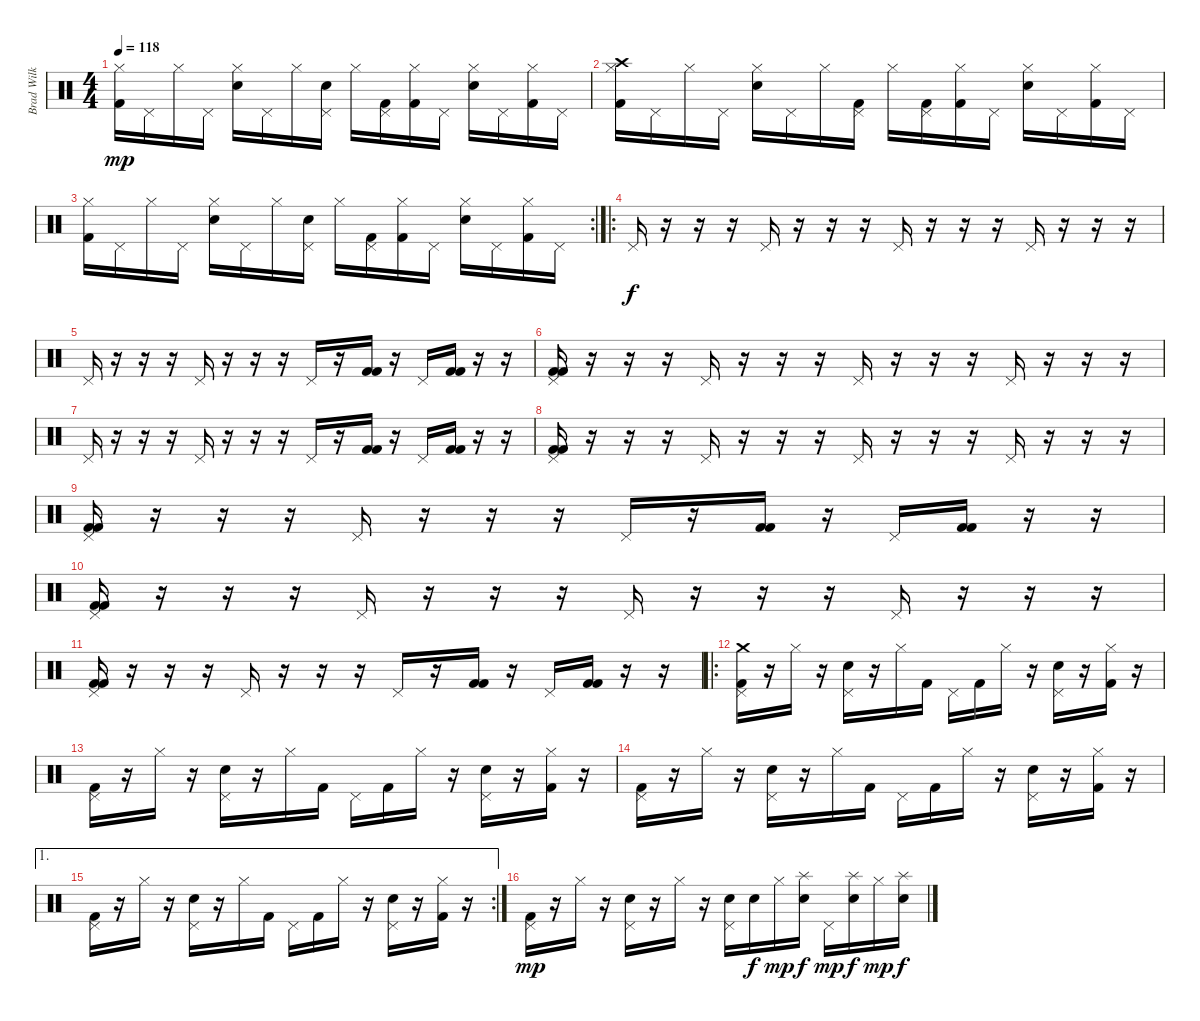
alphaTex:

\track ("Brad Wilk - Drums" "Brad Wilk ") {instrument percussion}
\staff {score}
\articulation defaults
\ts (4 4)
\tempo 118
\clef neutral
\ks c
("Kick (hit) 2" "Hi-Hat (closed)").16{dy mp} "Pedal Hi-Hat (hit)".16 "Hi-Hat (closed)".16 "Pedal Hi-Hat (hit)".16 ("Electric Snare (hit)" "Hi-Hat (closed)").16 "Pedal Hi-Hat (hit)".16 "Hi-Hat (closed)".16 ("Electric Snare (hit)" "Pedal Hi-Hat (hit)").16 "Hi-Hat (closed)".16 ("Kick (hit) 2" "Pedal Hi-Hat (hit)").16 ("Kick (hit) 2" "Hi-Hat (closed)").16 "Pedal Hi-Hat (hit)".16 ("Electric Snare (hit)" "Hi-Hat (closed)").16 "Pedal Hi-Hat (hit)".16 ("Kick (hit) 2" "Hi-Hat (closed)").16 "Pedal Hi-Hat (hit)".16 |
("Kick (hit) 2" "Crash high (hit)" "Hi-Hat (closed)").16 "Pedal Hi-Hat (hit)".16 "Hi-Hat (closed)".16 "Pedal Hi-Hat (hit)".16 ("Electric Snare (hit)" "Hi-Hat (closed)").16 "Pedal Hi-Hat (hit)".16 "Hi-Hat (closed)".16 ("Kick (hit) 2" "Pedal Hi-Hat (hit)").16 "Hi-Hat (closed)".16 ("Kick (hit) 2" "Pedal Hi-Hat (hit)").16 ("Kick (hit) 2" "Hi-Hat (closed)").16 "Pedal Hi-Hat (hit)".16 ("Electric Snare (hit)" "Hi-Hat (closed)").16 "Pedal Hi-Hat (hit)".16 ("Kick (hit) 2" "Hi-Hat (closed)").16 "Pedal Hi-Hat (hit)".16 |
\rc 2
("Kick (hit) 2" "Hi-Hat (closed)").16 "Pedal Hi-Hat (hit)".16 "Hi-Hat (closed)".16 "Pedal Hi-Hat (hit)".16 ("Electric Snare (hit)" "Hi-Hat (closed)").16 "Pedal Hi-Hat (hit)".16 "Hi-Hat (closed)".16 ("Electric Snare (hit)" "Pedal Hi-Hat (hit)").16 "Hi-Hat (closed)".16 ("Kick (hit) 2" "Pedal Hi-Hat (hit)").16 ("Kick (hit) 2" "Hi-Hat (closed)").16 "Pedal Hi-Hat (hit)".16 ("Electric Snare (hit)" "Hi-Hat (closed)").16 "Pedal Hi-Hat (hit)".16 ("Kick (hit) 2" "Hi-Hat (closed)").16 "Pedal Hi-Hat (hit)".16 |
\ro "Pedal Hi-Hat (hit)".16{dy f}
r.16 r.16 r.16 "Pedal Hi-Hat (hit)".16 r.16 r.16 r.16 "Pedal Hi-Hat (hit)".16 r.16 r.16 r.16 "Pedal Hi-Hat (hit)".16 r.16 r.16 r.16 |
"Pedal Hi-Hat (hit)".16 r.16 r.16 r.16 "Pedal Hi-Hat (hit)".16 r.16 r.16 r.16 "Pedal Hi-Hat (hit)".16 r.16 ("Kick (hit) 2" "Kick (hit) 2").16 r.16 "Pedal Hi-Hat (hit)".16 ("Kick (hit) 2" "Kick (hit) 2").16 r.16 r.16 |
("Kick (hit) 2" "Kick (hit) 2" "Pedal Hi-Hat (hit)").16 r.16 r.16 r.16 "Pedal Hi-Hat (hit)".16 r.16 r.16 r.16 "Pedal Hi-Hat (hit)".16 r.16 r.16 r.16 "Pedal Hi-Hat (hit)".16 r.16 r.16 r.16 |
"Pedal Hi-Hat (hit)".16 r.16 r.16 r.16 "Pedal Hi-Hat (hit)".16 r.16 r.16 r.16 "Pedal Hi-Hat (hit)".16 r.16 ("Kick (hit) 2" "Kick (hit) 2").16 r.16 "Pedal Hi-Hat (hit)".16 ("Kick (hit) 2" "Kick (hit) 2").16 r.16 r.16 |
("Kick (hit) 2" "Kick (hit) 2" "Pedal Hi-Hat (hit)").16 r.16 r.16 r.16 "Pedal Hi-Hat (hit)".16 r.16 r.16 r.16 "Pedal Hi-Hat (hit)".16 r.16 r.16 r.16 "Pedal Hi-Hat (hit)".16 r.16 r.16 r.16 |
("Kick (hit) 2" "Kick (hit) 2" "Pedal Hi-Hat (hit)").16 r.16 r.16 r.16 "Pedal Hi-Hat (hit)".16 r.16 r.16 r.16 "Pedal Hi-Hat (hit)".16 r.16 ("Kick (hit) 2" "Kick (hit) 2").16 r.16 "Pedal Hi-Hat (hit)".16 ("Kick (hit) 2" "Kick (hit) 2").16 r.16 r.16 |
("Kick (hit) 2" "Kick (hit) 2" "Pedal Hi-Hat (hit)").16 r.16 r.16 r.16 "Pedal Hi-Hat (hit)".16 r.16 r.16 r.16 "Pedal Hi-Hat (hit)".16 r.16 r.16 r.16 "Pedal Hi-Hat (hit)".16 r.16 r.16 r.16 |
("Kick (hit) 2" "Kick (hit) 2" "Pedal Hi-Hat (hit)").16 r.16 r.16 r.16 "Pedal Hi-Hat (hit)".16 r.16 r.16 r.16 "Pedal Hi-Hat (hit)".16 r.16 ("Kick (hit) 2" "Kick (hit) 2").16 r.16 "Pedal Hi-Hat (hit)".16 ("Kick (hit) 2" "Kick (hit) 2").16 r.16 r.16 |
\ro
("Kick (hit) 2" "Crash medium (hit)" "Pedal Hi-Hat (hit)").16 r.16 "Hi-Hat (closed)".16 r.16 ("Electric Snare (hit)" "Pedal Hi-Hat (hit)").16 r.16 "Hi-Hat (closed)".16 "Kick (hit) 2".16 "Pedal Hi-Hat (hit)".16 "Kick (hit) 2".16 "Hi-Hat (closed)".16 r.16 ("Electric Snare (hit)" "Pedal Hi-Hat (hit)").16 r.16 ("Kick (hit) 2" "Hi-Hat (closed)").16 r.16 |
("Kick (hit) 2" "Pedal Hi-Hat (hit)").16 r.16 "Hi-Hat (closed)".16 r.16 ("Electric Snare (hit)" "Pedal Hi-Hat (hit)").16 r.16 "Hi-Hat (closed)".16 "Kick (hit) 2".16 "Pedal Hi-Hat (hit)".16 "Kick (hit) 2".16 "Hi-Hat (closed)".16 r.16 ("Electric Snare (hit)" "Pedal Hi-Hat (hit)").16 r.16 ("Kick (hit) 2" "Hi-Hat (closed)").16 r.16 |
("Kick (hit) 2" "Pedal Hi-Hat (hit)").16 r.16 "Hi-Hat (closed)".16 r.16 ("Electric Snare (hit)" "Pedal Hi-Hat (hit)").16 r.16 "Hi-Hat (closed)".16 "Kick (hit) 2".16 "Pedal Hi-Hat (hit)".16 "Kick (hit) 2".16 "Hi-Hat (closed)".16 r.16 ("Electric Snare (hit)" "Pedal Hi-Hat (hit)").16 r.16 ("Kick (hit) 2" "Hi-Hat (closed)").16 r.16 |
\ae 1
\rc 2
("Kick (hit) 2" "Pedal Hi-Hat (hit)").16 r.16 "Hi-Hat (closed)".16 r.16 ("Electric Snare (hit)" "Pedal Hi-Hat (hit)").16 r.16 "Hi-Hat (closed)".16 "Kick (hit) 2".16 "Pedal Hi-Hat (hit)".16 "Kick (hit) 2".16 "Hi-Hat (closed)".16 r.16 ("Electric Snare (hit)" "Pedal Hi-Hat (hit)").16 r.16 ("Kick (hit) 2" "Hi-Hat (closed)").16 r.16 |
("Kick (hit) 2" "Pedal Hi-Hat (hit)").16{dy mp} r.16 "Hi-Hat (closed)".16 r.16 ("Electric Snare (hit)" "Pedal Hi-Hat (hit)").16 r.16 "Hi-Hat (closed)".16 r.16 ("Electric Snare (hit)" "Pedal Hi-Hat (hit)").16 "Electric Snare (hit)".16{dy f} "Hi-Hat (closed)".16{dy mp} ("Electric Snare (hit)" "Splash (hit)").16{dy f} "Pedal Hi-Hat (hit)".16{dy mp} ("Electric Snare (hit)" "Splash (hit)").16{dy f} "Hi-Hat (closed)".16{dy mp} ("Electric Snare (hit)" "Splash (hit)").16{dy f}
